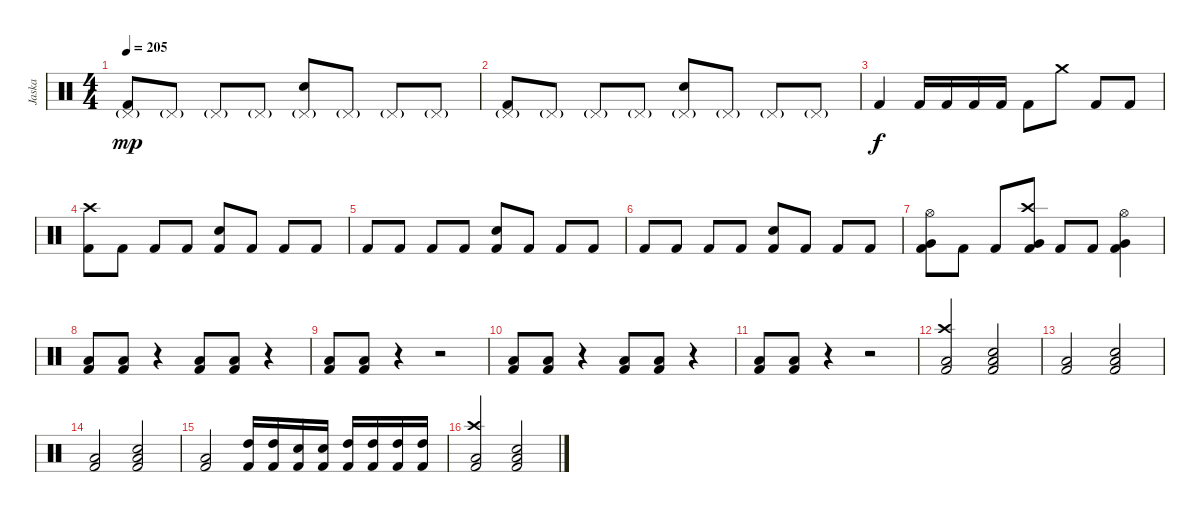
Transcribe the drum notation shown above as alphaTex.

\track ("Jaska" "Jaska") {instrument percussion}
\staff {score}
\articulation defaults
\ts (4 4)
\tempo 205
\clef neutral
\ks c
("Kick (hit) 2" "Pedal Hi-Hat (hit)"{g}).8{dy mp} "Pedal Hi-Hat (hit)"{g}.8 "Pedal Hi-Hat (hit)"{g}.8 "Pedal Hi-Hat (hit)"{g}.8 ("Pedal Hi-Hat (hit)"{g} "Electric Snare (hit)").8 "Pedal Hi-Hat (hit)"{g}.8 "Pedal Hi-Hat (hit)"{g}.8 "Pedal Hi-Hat (hit)"{g}.8 |
("Kick (hit) 2" "Pedal Hi-Hat (hit)"{g}).8 "Pedal Hi-Hat (hit)"{g}.8 "Pedal Hi-Hat (hit)"{g}.8 "Pedal Hi-Hat (hit)"{g}.8 ("Pedal Hi-Hat (hit)"{g} "Electric Snare (hit)").8 "Pedal Hi-Hat (hit)"{g}.8 "Pedal Hi-Hat (hit)"{g}.8 "Pedal Hi-Hat (hit)"{g}.8 |
"Kick (hit) 2".4{dy f} "Kick (hit) 2".16 "Kick (hit) 2".16 "Kick (hit) 2".16 "Kick (hit) 2".16 "Kick (hit) 2".8 "Crash medium (hit)".8 "Kick (hit) 2".8 "Kick (hit) 2".8 |
("Kick (hit) 2" "Crash high (hit)").8 "Kick (hit) 2".8 "Kick (hit) 2".8 "Kick (hit) 2".8 ("Kick (hit) 2" "Electric Snare (hit)").8 "Kick (hit) 2".8 "Kick (hit) 2".8 "Kick (hit) 2".8 |
"Kick (hit) 2".8 "Kick (hit) 2".8 "Kick (hit) 2".8 "Kick (hit) 2".8 ("Kick (hit) 2" "Electric Snare (hit)").8 "Kick (hit) 2".8 "Kick (hit) 2".8 "Kick (hit) 2".8 |
"Kick (hit) 2".8 "Kick (hit) 2".8 "Kick (hit) 2".8 "Kick (hit) 2".8 ("Kick (hit) 2" "Electric Snare (hit)").8 "Kick (hit) 2".8 "Kick (hit) 2".8 "Kick (hit) 2".8 |
("Kick (hit) 2" "Very Low Tom (hit)" "Hi-Hat (open)").8 "Kick (hit) 2".8 "Kick (hit) 2".8 ("Kick (hit) 2" "Very Low Tom (hit)" "Crash high (hit)").8 "Kick (hit) 2".8 "Kick (hit) 2".8 ("Kick (hit) 2" "Very Low Tom (hit)" "Hi-Hat (open)").4 |
("Kick (hit) 2" "Low Tom (hit)").8 ("Kick (hit) 2" "Low Tom (hit)").8 r.4 ("Kick (hit) 2" "Low Tom (hit)").8 ("Kick (hit) 2" "Low Tom (hit)").8 r.4 |
("Kick (hit) 2" "Low Tom (hit)").8 ("Kick (hit) 2" "Low Tom (hit)").8 r.4 r.2 |
("Kick (hit) 2" "Low Tom (hit)").8 ("Kick (hit) 2" "Low Tom (hit)").8 r.4 ("Kick (hit) 2" "Low Tom (hit)").8 ("Kick (hit) 2" "Low Tom (hit)").8 r.4 |
("Kick (hit) 2" "Low Tom (hit)").8 ("Kick (hit) 2" "Low Tom (hit)").8 r.4 r.2 |
("Kick (hit) 2" "Low Tom (hit)" "Crash high (hit)").2 ("Kick (hit) 2" "Snare (hit) 2" "Low Tom (hit)").2 |
("Kick (hit) 2" "Low Tom (hit)").2 ("Kick (hit) 2" "Snare (hit) 2" "Low Tom (hit)").2 |
("Kick (hit) 2" "Low Tom (hit)").2 ("Kick (hit) 2" "Snare (hit) 2" "Low Tom (hit)").2 |
("Kick (hit) 2" "Low Tom (hit)").2 ("Kick (hit) 2" "High Tom (hit)").16 ("Kick (hit) 2" "High Tom (hit)").16 ("Kick (hit) 2" "Electric Snare (hit)").16 ("Kick (hit) 2" "Electric Snare (hit)").16 ("Kick (hit) 2" "High Tom (hit)").16 ("Kick (hit) 2" "High Tom (hit)").16 ("Kick (hit) 2" "High Tom (hit)").16 ("Kick (hit) 2" "High Tom (hit)").16 |
("Kick (hit) 2" "Crash high (hit)" "Low Tom (hit)").2 ("Kick (hit) 2" "Snare (hit) 2" "Low Tom (hit)").2
